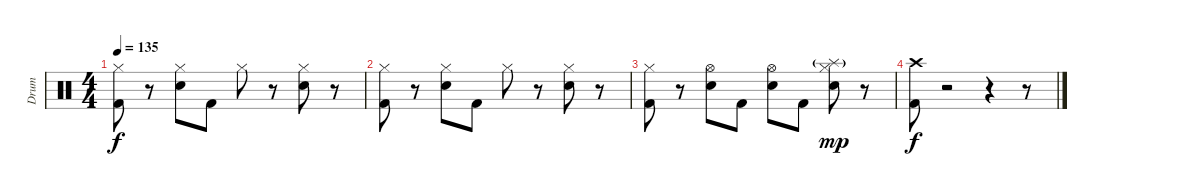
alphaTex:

\track ("Drum" "Drum") {instrument percussion}
\staff {score}
\articulation defaults
\ts (4 4)
\tempo 135
\clef neutral
\ks c
("Hi-Hat (closed)" "Kick (hit) 2").8{dy f} r.8 ("Hi-Hat (closed)" "Electric Snare (hit)").8 "Kick (hit) 2".8 "Hi-Hat (closed)".8 r.8 ("Hi-Hat (closed)" "Electric Snare (hit)").8 r.8 |
("Hi-Hat (closed)" "Kick (hit) 2").8 r.8 ("Hi-Hat (closed)" "Electric Snare (hit)").8 "Kick (hit) 2".8 "Hi-Hat (closed)".8 r.8 ("Hi-Hat (closed)" "Electric Snare (hit)").8 r.8 |
("Hi-Hat (closed)" "Kick (hit) 2").8 r.8 ("Hi-Hat (open)" "Electric Snare (hit)").8 "Kick (hit) 2".8 ("Hi-Hat (open)" "Electric Snare (hit)").8 "Kick (hit) 2".8 ("Splash (hit)"{g} "Electric Snare (hit)" "Hi-Hat (closed)").8{dy mp} r.8 |
("Crash high (hit)" "Kick (hit) 2").8{dy f} r.2 r.4 r.8
